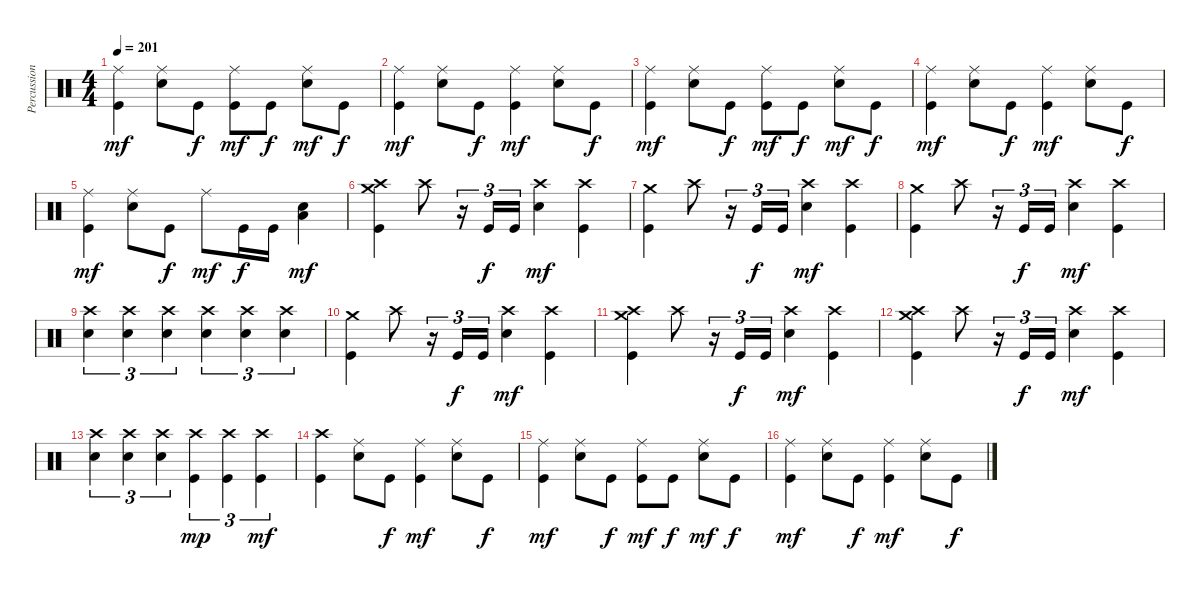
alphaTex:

\track ("Percussion" "Percussion") {instrument percussion}
\staff {score}
\articulation defaults
\ts (4 4)
\tempo 201
\clef neutral
\ks c
("Ride (middle)" "Kick (hit)").4{dy mf} ("Ride (middle)" "Electric Snare (hit)").8 "Kick (hit)".8{dy f} ("Ride (middle)" "Kick (hit)").8{dy mf} "Kick (hit)".8{dy f} ("Ride (middle)" "Electric Snare (hit)").8{dy mf} "Kick (hit)".8{dy f} |
("Ride (middle)" "Kick (hit)").4{dy mf} ("Ride (middle)" "Electric Snare (hit)").8 "Kick (hit)".8{dy f} ("Ride (middle)" "Kick (hit)").4{dy mf} ("Ride (middle)" "Electric Snare (hit)").8 "Kick (hit)".8{dy f} |
("Ride (middle)" "Kick (hit)").4{dy mf} ("Ride (middle)" "Electric Snare (hit)").8 "Kick (hit)".8{dy f} ("Ride (middle)" "Kick (hit)").8{dy mf} "Kick (hit)".8{dy f} ("Ride (middle)" "Electric Snare (hit)").8{dy mf} "Kick (hit)".8{dy f} |
("Ride (middle)" "Kick (hit)").4{dy mf} ("Ride (middle)" "Electric Snare (hit)").8 "Kick (hit)".8{dy f} ("Ride (middle)" "Kick (hit)").4{dy mf} ("Ride (middle)" "Electric Snare (hit)").8 "Kick (hit)".8{dy f} |
("Ride (middle)" "Kick (hit)").4{dy mf} ("Ride (middle)" "Electric Snare (hit)").8 "Kick (hit)".8{dy f} "Ride (middle)".8{dy mf} "Kick (hit)".16{dy f} "Kick (hit)".16 ("Low Floor Tom (hit)" "Electric Snare (hit)").4{dy mf} |
("Crash high (hit)" "Crash medium (hit)" "Kick (hit)").4 "Crash high (hit)".8 r.16{tu (3 2)} "Kick (hit)".16{tu (3 2) dy f} "Kick (hit)".16{tu (3 2)} ("Crash high (hit)" "Electric Snare (hit)").4{dy mf} ("Crash high (hit)" "Kick (hit)").4 |
("Crash medium (hit)" "Kick (hit)").4 "Crash high (hit)".8 r.16{tu (3 2)} "Kick (hit)".16{tu (3 2) dy f} "Kick (hit)".16{tu (3 2)} ("Crash high (hit)" "Electric Snare (hit)").4{dy mf} ("Crash high (hit)" "Kick (hit)").4 |
("Crash medium (hit)" "Kick (hit)").4 "Crash high (hit)".8 r.16{tu (3 2)} "Kick (hit)".16{tu (3 2) dy f} "Kick (hit)".16{tu (3 2)} ("Crash high (hit)" "Electric Snare (hit)").4{dy mf} ("Crash high (hit)" "Kick (hit)").4 |
("Crash high (hit)" "Electric Snare (hit)").4{tu (3 2)} ("Crash high (hit)" "Electric Snare (hit)").4{tu (3 2)} ("Crash high (hit)" "Electric Snare (hit)").4{tu (3 2)} ("Crash high (hit)" "Electric Snare (hit)").4{tu (3 2)} ("Crash high (hit)" "Electric Snare (hit)").4{tu (3 2)} ("Crash high (hit)" "Electric Snare (hit)").4{tu (3 2)} |
("Crash medium (hit)" "Kick (hit)").4 "Crash high (hit)".8 r.16{tu (3 2)} "Kick (hit)".16{tu (3 2) dy f} "Kick (hit)".16{tu (3 2)} ("Crash high (hit)" "Electric Snare (hit)").4{dy mf} ("Crash high (hit)" "Kick (hit)").4 |
("Crash high (hit)" "Crash medium (hit)" "Kick (hit)").4 "Crash high (hit)".8 r.16{tu (3 2)} "Kick (hit)".16{tu (3 2) dy f} "Kick (hit)".16{tu (3 2)} ("Crash high (hit)" "Electric Snare (hit)").4{dy mf} ("Crash high (hit)" "Kick (hit)").4 |
("Crash high (hit)" "Crash medium (hit)" "Kick (hit)").4 "Crash high (hit)".8 r.16{tu (3 2)} "Kick (hit)".16{tu (3 2) dy f} "Kick (hit)".16{tu (3 2)} ("Crash high (hit)" "Electric Snare (hit)").4{dy mf} ("Crash high (hit)" "Kick (hit)").4 |
("Crash high (hit)" "Electric Snare (hit)").4{tu (3 2)} ("Crash high (hit)" "Electric Snare (hit)").4{tu (3 2)} ("Crash high (hit)" "Electric Snare (hit)").4{tu (3 2)} ("Crash high (hit)" "Kick (hit)").4{tu (3 2) dy mp} ("Crash high (hit)" "Kick (hit)").4{tu (3 2)} ("Crash high (hit)" "Kick (hit)").4{tu (3 2) dy mf} |
("Crash high (hit)" "Kick (hit)").4 ("Ride (middle)" "Electric Snare (hit)").8 "Kick (hit)".8{dy f} ("Ride (middle)" "Kick (hit)").4{dy mf} ("Ride (middle)" "Electric Snare (hit)").8 "Kick (hit)".8{dy f} |
("Ride (middle)" "Kick (hit)").4{dy mf} ("Ride (middle)" "Electric Snare (hit)").8 "Kick (hit)".8{dy f} ("Ride (middle)" "Kick (hit)").8{dy mf} "Kick (hit)".8{dy f} ("Ride (middle)" "Electric Snare (hit)").8{dy mf} "Kick (hit)".8{dy f} |
("Ride (middle)" "Kick (hit)").4{dy mf} ("Ride (middle)" "Electric Snare (hit)").8 "Kick (hit)".8{dy f} ("Ride (middle)" "Kick (hit)").4{dy mf} ("Ride (middle)" "Electric Snare (hit)").8 "Kick (hit)".8{dy f}
